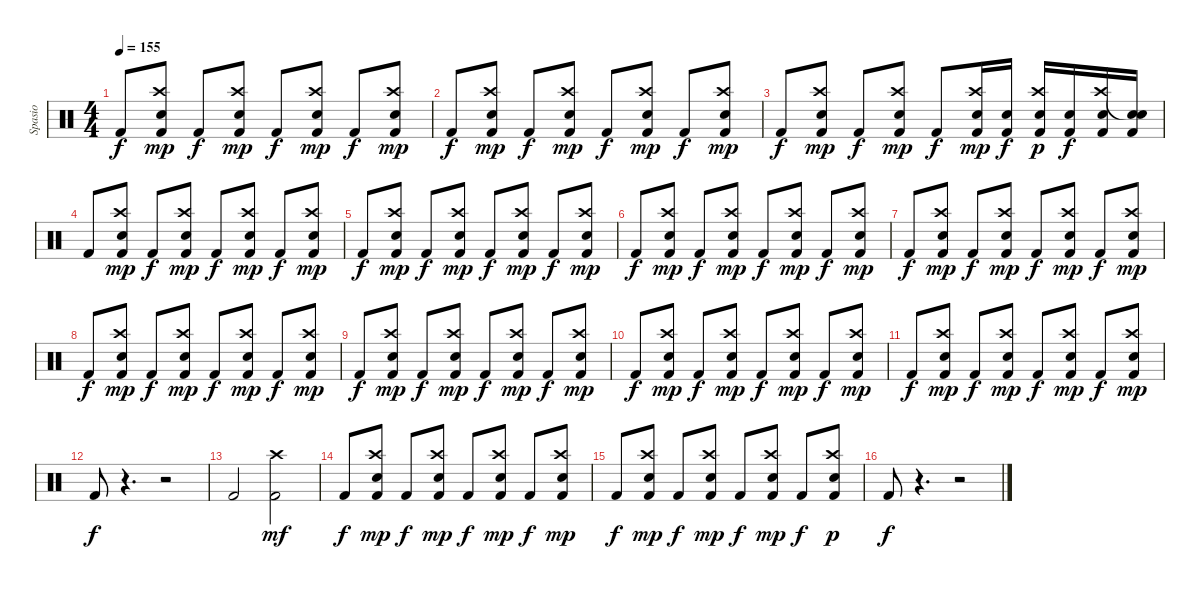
\track ("Spasio" "Spasio") {instrument percussion}
\staff {score}
\articulation defaults
\ts (4 4)
\tempo 155
\clef neutral
\ks c "Kick (hit) 2".8{dy f}
("Crash high (hit)" "Electric Snare (hit)" "Kick (hit) 2").8{dy mp} "Kick (hit) 2".8{dy f} ("Crash high (hit)" "Electric Snare (hit)" "Kick (hit) 2").8{dy mp} "Kick (hit) 2".8{dy f} ("Crash high (hit)" "Electric Snare (hit)" "Kick (hit) 2").8{dy mp} "Kick (hit) 2".8{dy f} ("Crash high (hit)" "Electric Snare (hit)" "Kick (hit) 2").8{dy mp} |
"Kick (hit) 2".8{dy f} ("Crash high (hit)" "Electric Snare (hit)" "Kick (hit) 2").8{dy mp} "Kick (hit) 2".8{dy f} ("Crash high (hit)" "Electric Snare (hit)" "Kick (hit) 2").8{dy mp} "Kick (hit) 2".8{dy f} ("Crash high (hit)" "Electric Snare (hit)" "Kick (hit) 2").8{dy mp} "Kick (hit) 2".8{dy f} ("Crash high (hit)" "Electric Snare (hit)" "Kick (hit) 2").8{dy mp} |
"Kick (hit) 2".8{dy f} ("Crash high (hit)" "Electric Snare (hit)" "Kick (hit) 2").8{dy mp} "Kick (hit) 2".8{dy f} ("Crash high (hit)" "Electric Snare (hit)" "Kick (hit) 2").8{dy mp} "Kick (hit) 2".8{dy f} ("Crash high (hit)" "Electric Snare (hit)" "Kick (hit) 2").16{dy mp} ("Electric Snare (hit)" "Kick (hit) 2").16{dy f} ("Crash high (hit)" "Electric Snare (hit)" "Kick (hit) 2").16{dy p} ("Electric Snare (hit)" "Kick (hit) 2").16{dy f} ("Crash high (hit)" "Electric Snare (hit)" "Kick (hit) 2").16 ("Snare (hit)"{t} "Electric Snare (hit)" "Kick (hit) 2").16 |
"Kick (hit) 2".8 ("Crash high (hit)" "Electric Snare (hit)" "Kick (hit) 2").8{dy mp} "Kick (hit) 2".8{dy f} ("Crash high (hit)" "Electric Snare (hit)" "Kick (hit) 2").8{dy mp} "Kick (hit) 2".8{dy f} ("Crash high (hit)" "Electric Snare (hit)" "Kick (hit) 2").8{dy mp} "Kick (hit) 2".8{dy f} ("Crash high (hit)" "Electric Snare (hit)" "Kick (hit) 2").8{dy mp} |
"Kick (hit) 2".8{dy f} ("Crash high (hit)" "Electric Snare (hit)" "Kick (hit) 2").8{dy mp} "Kick (hit) 2".8{dy f} ("Crash high (hit)" "Electric Snare (hit)" "Kick (hit) 2").8{dy mp} "Kick (hit) 2".8{dy f} ("Crash high (hit)" "Electric Snare (hit)" "Kick (hit) 2").8{dy mp} "Kick (hit) 2".8{dy f} ("Crash high (hit)" "Electric Snare (hit)" "Kick (hit) 2").8{dy mp} |
"Kick (hit) 2".8{dy f} ("Crash high (hit)" "Electric Snare (hit)" "Kick (hit) 2").8{dy mp} "Kick (hit) 2".8{dy f} ("Crash high (hit)" "Electric Snare (hit)" "Kick (hit) 2").8{dy mp} "Kick (hit) 2".8{dy f} ("Crash high (hit)" "Electric Snare (hit)" "Kick (hit) 2").8{dy mp} "Kick (hit) 2".8{dy f} ("Crash high (hit)" "Electric Snare (hit)" "Kick (hit) 2").8{dy mp} |
"Kick (hit) 2".8{dy f} ("Crash high (hit)" "Electric Snare (hit)" "Kick (hit) 2").8{dy mp} "Kick (hit) 2".8{dy f} ("Crash high (hit)" "Electric Snare (hit)" "Kick (hit) 2").8{dy mp} "Kick (hit) 2".8{dy f} ("Crash high (hit)" "Electric Snare (hit)" "Kick (hit) 2").8{dy mp} "Kick (hit) 2".8{dy f} ("Crash high (hit)" "Electric Snare (hit)" "Kick (hit) 2").8{dy mp} |
"Kick (hit) 2".8{dy f} ("Crash high (hit)" "Electric Snare (hit)" "Kick (hit) 2").8{dy mp} "Kick (hit) 2".8{dy f} ("Crash high (hit)" "Electric Snare (hit)" "Kick (hit) 2").8{dy mp} "Kick (hit) 2".8{dy f} ("Crash high (hit)" "Electric Snare (hit)" "Kick (hit) 2").8{dy mp} "Kick (hit) 2".8{dy f} ("Crash high (hit)" "Electric Snare (hit)" "Kick (hit) 2").8{dy mp} |
"Kick (hit) 2".8{dy f} ("Crash high (hit)" "Electric Snare (hit)" "Kick (hit) 2").8{dy mp} "Kick (hit) 2".8{dy f} ("Crash high (hit)" "Electric Snare (hit)" "Kick (hit) 2").8{dy mp} "Kick (hit) 2".8{dy f} ("Crash high (hit)" "Electric Snare (hit)" "Kick (hit) 2").8{dy mp} "Kick (hit) 2".8{dy f} ("Crash high (hit)" "Electric Snare (hit)" "Kick (hit) 2").8{dy mp} |
"Kick (hit) 2".8{dy f} ("Crash high (hit)" "Electric Snare (hit)" "Kick (hit) 2").8{dy mp} "Kick (hit) 2".8{dy f} ("Crash high (hit)" "Electric Snare (hit)" "Kick (hit) 2").8{dy mp} "Kick (hit) 2".8{dy f} ("Crash high (hit)" "Electric Snare (hit)" "Kick (hit) 2").8{dy mp} "Kick (hit) 2".8{dy f} ("Crash high (hit)" "Electric Snare (hit)" "Kick (hit) 2").8{dy mp} |
"Kick (hit) 2".8{dy f} ("Crash high (hit)" "Electric Snare (hit)" "Kick (hit) 2").8{dy mp} "Kick (hit) 2".8{dy f} ("Crash high (hit)" "Electric Snare (hit)" "Kick (hit) 2").8{dy mp} "Kick (hit) 2".8{dy f} ("Crash high (hit)" "Electric Snare (hit)" "Kick (hit) 2").8{dy mp} "Kick (hit) 2".8{dy f} ("Crash high (hit)" "Electric Snare (hit)" "Kick (hit) 2").8{dy mp} |
"Kick (hit) 2".8{dy f} r.4{d} r.2 |
"Kick (hit) 2".2 ("Crash high (hit)" "Kick (hit) 2").2{dy mf} |
"Kick (hit) 2".8{dy f} ("Crash high (hit)" "Electric Snare (hit)" "Kick (hit) 2").8{dy mp} "Kick (hit) 2".8{dy f} ("Crash high (hit)" "Electric Snare (hit)" "Kick (hit) 2").8{dy mp} "Kick (hit) 2".8{dy f} ("Crash high (hit)" "Electric Snare (hit)" "Kick (hit) 2").8{dy mp} "Kick (hit) 2".8{dy f} ("Crash high (hit)" "Electric Snare (hit)" "Kick (hit) 2").8{dy mp} |
"Kick (hit) 2".8{dy f} ("Crash high (hit)" "Electric Snare (hit)" "Kick (hit) 2").8{dy mp} "Kick (hit) 2".8{dy f} ("Crash high (hit)" "Electric Snare (hit)" "Kick (hit) 2").8{dy mp} "Kick (hit) 2".8{dy f} ("Crash high (hit)" "Electric Snare (hit)" "Kick (hit) 2").8{dy mp} "Kick (hit) 2".8{dy f} ("Crash high (hit)" "Electric Snare (hit)" "Kick (hit) 2").8{dy p} |
"Kick (hit) 2".8{dy f} r.4{d} r.2
